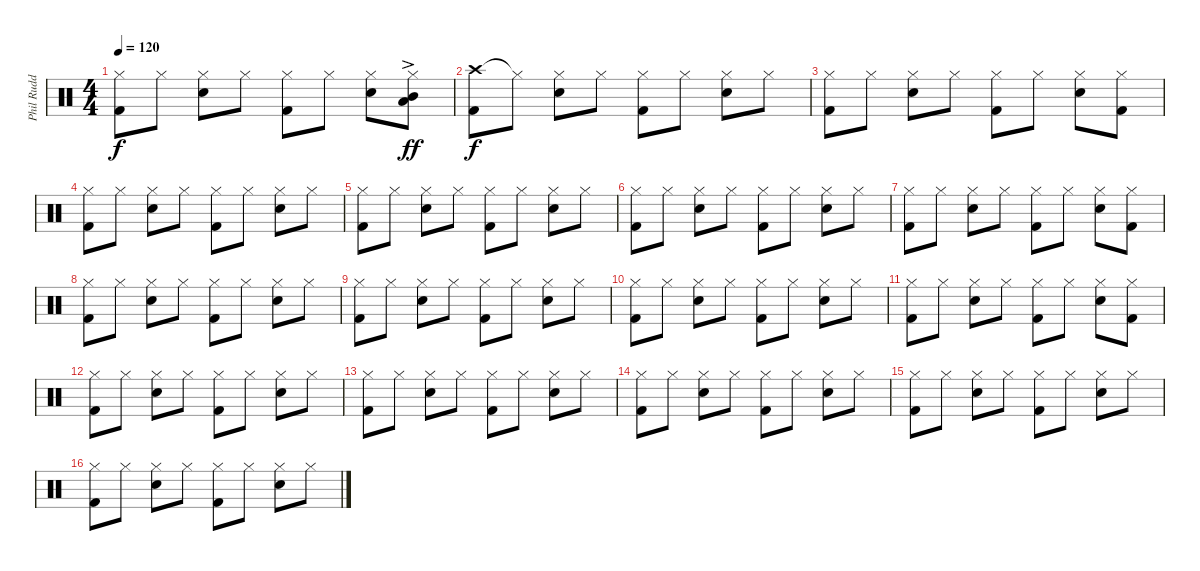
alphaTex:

\track ("Phil Rudd" "Phil Rudd") {instrument percussion}
\staff {score}
\articulation defaults
\ts (4 4)
\tempo 120
\clef neutral
\ks c
("Hi-Hat (closed)" "Kick (hit) 2").8{dy f} "Hi-Hat (closed)".8 ("Hi-Hat (closed)" "Snare (hit) 2").8 "Hi-Hat (closed)".8 ("Hi-Hat (closed)" "Kick (hit) 2").8 "Hi-Hat (closed)".8 ("Hi-Hat (closed)" "Snare (hit) 2").8 ("Hi-Hat (closed)" "Low Tom (hit)"{ac} "Mid Tom (hit)").8{dy ff} |
("Crash high (hit)" "Kick (hit) 2").8{dy f} "Hi-Hat (closed)"{t}.8 ("Hi-Hat (closed)" "Snare (hit) 2").8 "Hi-Hat (closed)".8 ("Hi-Hat (closed)" "Kick (hit) 2").8 "Hi-Hat (closed)".8 ("Hi-Hat (closed)" "Snare (hit) 2").8 "Hi-Hat (closed)".8 |
("Hi-Hat (closed)" "Kick (hit) 2").8 "Hi-Hat (closed)".8 ("Hi-Hat (closed)" "Snare (hit) 2").8 "Hi-Hat (closed)".8 ("Hi-Hat (closed)" "Kick (hit) 2").8 "Hi-Hat (closed)".8 ("Hi-Hat (closed)" "Snare (hit) 2").8 ("Hi-Hat (closed)" "Kick (hit) 2").8 |
("Hi-Hat (closed)" "Kick (hit) 2").8 "Hi-Hat (closed)".8 ("Hi-Hat (closed)" "Snare (hit) 2").8 "Hi-Hat (closed)".8 ("Hi-Hat (closed)" "Kick (hit) 2").8 "Hi-Hat (closed)".8 ("Hi-Hat (closed)" "Snare (hit) 2").8 "Hi-Hat (closed)".8 |
("Hi-Hat (closed)" "Kick (hit) 2").8 "Hi-Hat (closed)".8 ("Hi-Hat (closed)" "Snare (hit) 2").8 "Hi-Hat (closed)".8 ("Hi-Hat (closed)" "Kick (hit) 2").8 "Hi-Hat (closed)".8 ("Hi-Hat (closed)" "Snare (hit) 2").8 "Hi-Hat (closed)".8 |
("Hi-Hat (closed)" "Kick (hit) 2").8 "Hi-Hat (closed)".8 ("Hi-Hat (closed)" "Snare (hit) 2").8 "Hi-Hat (closed)".8 ("Hi-Hat (closed)" "Kick (hit) 2").8 "Hi-Hat (closed)".8 ("Hi-Hat (closed)" "Snare (hit) 2").8 "Hi-Hat (closed)".8 |
("Hi-Hat (closed)" "Kick (hit) 2").8 "Hi-Hat (closed)".8 ("Hi-Hat (closed)" "Snare (hit) 2").8 "Hi-Hat (closed)".8 ("Hi-Hat (closed)" "Kick (hit) 2").8 "Hi-Hat (closed)".8 ("Hi-Hat (closed)" "Snare (hit) 2").8 ("Hi-Hat (closed)" "Kick (hit) 2").8 |
("Hi-Hat (closed)" "Kick (hit) 2").8 "Hi-Hat (closed)".8 ("Hi-Hat (closed)" "Snare (hit) 2").8 "Hi-Hat (closed)".8 ("Hi-Hat (closed)" "Kick (hit) 2").8 "Hi-Hat (closed)".8 ("Hi-Hat (closed)" "Snare (hit) 2").8 "Hi-Hat (closed)".8 |
("Hi-Hat (closed)" "Kick (hit) 2").8 "Hi-Hat (closed)".8 ("Hi-Hat (closed)" "Snare (hit) 2").8 "Hi-Hat (closed)".8 ("Hi-Hat (closed)" "Kick (hit) 2").8 "Hi-Hat (closed)".8 ("Hi-Hat (closed)" "Snare (hit) 2").8 "Hi-Hat (closed)".8 |
("Hi-Hat (closed)" "Kick (hit) 2").8 "Hi-Hat (closed)".8 ("Hi-Hat (closed)" "Snare (hit) 2").8 "Hi-Hat (closed)".8 ("Hi-Hat (closed)" "Kick (hit) 2").8 "Hi-Hat (closed)".8 ("Hi-Hat (closed)" "Snare (hit) 2").8 "Hi-Hat (closed)".8 |
("Hi-Hat (closed)" "Kick (hit) 2").8 "Hi-Hat (closed)".8 ("Hi-Hat (closed)" "Snare (hit) 2").8 "Hi-Hat (closed)".8 ("Hi-Hat (closed)" "Kick (hit) 2").8 "Hi-Hat (closed)".8 ("Hi-Hat (closed)" "Snare (hit) 2").8 ("Hi-Hat (closed)" "Kick (hit) 2").8 |
("Hi-Hat (closed)" "Kick (hit) 2").8 "Hi-Hat (closed)".8 ("Hi-Hat (closed)" "Snare (hit) 2").8 "Hi-Hat (closed)".8 ("Hi-Hat (closed)" "Kick (hit) 2").8 "Hi-Hat (closed)".8 ("Hi-Hat (closed)" "Snare (hit) 2").8 "Hi-Hat (closed)".8 |
("Hi-Hat (closed)" "Kick (hit) 2").8 "Hi-Hat (closed)".8 ("Hi-Hat (closed)" "Snare (hit) 2").8 "Hi-Hat (closed)".8 ("Hi-Hat (closed)" "Kick (hit) 2").8 "Hi-Hat (closed)".8 ("Hi-Hat (closed)" "Snare (hit) 2").8 "Hi-Hat (closed)".8 |
("Hi-Hat (closed)" "Kick (hit) 2").8 "Hi-Hat (closed)".8 ("Hi-Hat (closed)" "Snare (hit) 2").8 "Hi-Hat (closed)".8 ("Hi-Hat (closed)" "Kick (hit) 2").8 "Hi-Hat (closed)".8 ("Hi-Hat (closed)" "Snare (hit) 2").8 "Hi-Hat (closed)".8 |
("Hi-Hat (closed)" "Kick (hit) 2").8 "Hi-Hat (closed)".8 ("Hi-Hat (closed)" "Snare (hit) 2").8 "Hi-Hat (closed)".8 ("Hi-Hat (closed)" "Kick (hit) 2").8 "Hi-Hat (closed)".8 ("Hi-Hat (closed)" "Snare (hit) 2").8 "Hi-Hat (closed)".8 |
("Hi-Hat (closed)" "Kick (hit) 2").8 "Hi-Hat (closed)".8 ("Hi-Hat (closed)" "Snare (hit) 2").8 "Hi-Hat (closed)".8 ("Hi-Hat (closed)" "Kick (hit) 2").8 "Hi-Hat (closed)".8 ("Hi-Hat (closed)" "Snare (hit) 2").8 "Hi-Hat (closed)".8
